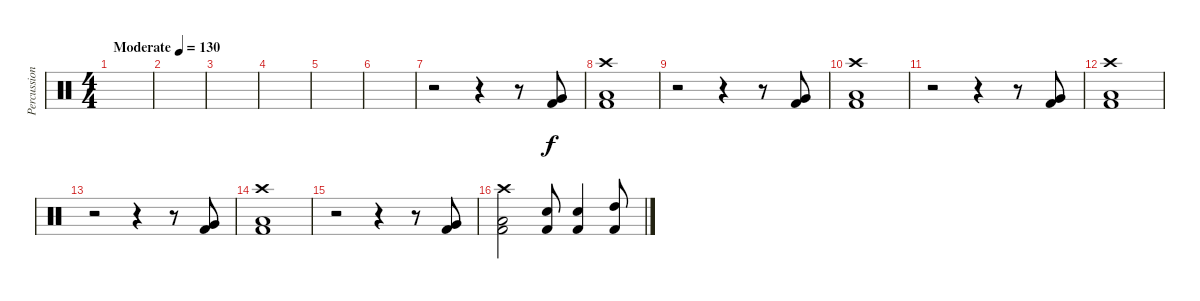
\track ("Percussioni" "Percussion") {instrument percussion}
\staff {score}
\articulation defaults
\ts (4 4)
\tempo (130 "Moderate")
\clef neutral
\ks c
|
|
|
|
|
|
r.2 r.4 r.8 ("Kick (hit) 2" "Very Low Tom (hit)").8 |
("Kick (hit) 2" "Low Tom (hit)" "Crash high (hit)").1 |
r.2 r.4 r.8 ("Kick (hit) 2" "Very Low Tom (hit)").8 |
("Kick (hit) 2" "Low Tom (hit)" "Crash high (hit)").1 |
r.2 r.4 r.8 ("Kick (hit) 2" "Very Low Tom (hit)").8 |
("Kick (hit) 2" "Low Tom (hit)" "Crash high (hit)").1 |
r.2 r.4 r.8 ("Kick (hit) 2" "Very Low Tom (hit)").8 |
("Kick (hit) 2" "Low Tom (hit)" "Crash high (hit)").1 |
r.2 r.4 r.8 ("Kick (hit) 2" "Very Low Tom (hit)").8 |
("Kick (hit) 2" "Low Tom (hit)" "Crash high (hit)").2 ("Snare (hit) 2" "Kick (hit) 2").8 ("Snare (hit) 2" "Kick (hit) 2").4 ("High Tom (hit)" "Kick (hit) 2").8
